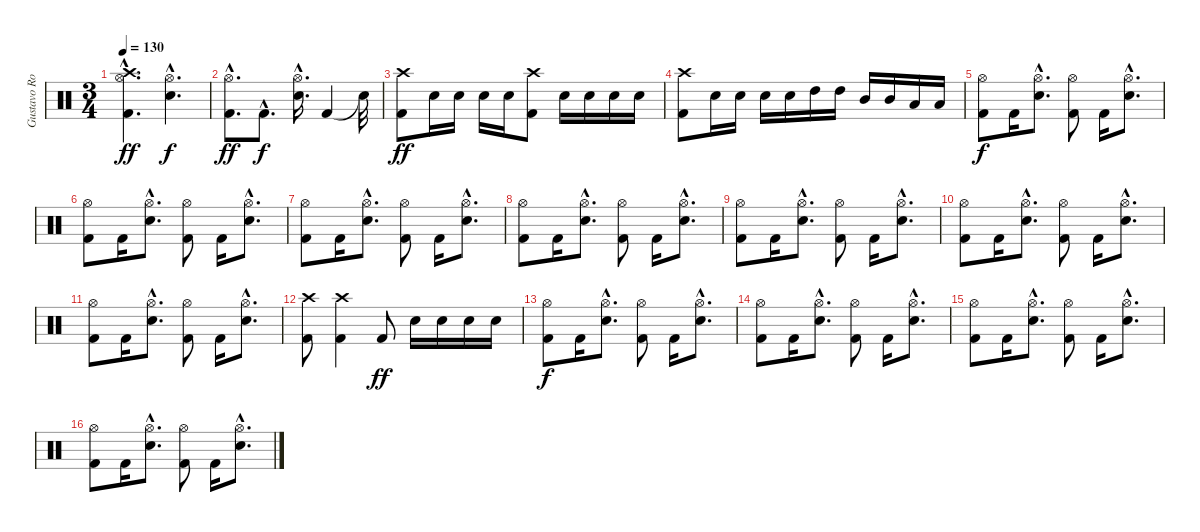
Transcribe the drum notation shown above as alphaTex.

\track ("Gustavo Rowek" "Gustavo Ro") {instrument percussion}
\staff {score}
\articulation defaults
\ts (3 4)
\tempo 130
\clef neutral
\ks c
("Hi-Hat (open)"{hac} "Crash high (hit)"{hac} "Kick (hit) 2"{hac}).4{d dy ff} ("Hi-Hat (open)"{hac} "Snare (hit) 2"{hac}).4{d dy f} |
("Hi-Hat (open)"{hac} "Kick (hit) 2"{hac}).8{d dy ff} "Kick (hit) 2"{hac}.8{d dy f} ("Hi-Hat (open)"{hac} "Snare (hit) 2"{hac}).16{d} "Kick (hit) 2".4 "Snare (hit)"{t}.32 |
("Kick (hit) 2" "Crash high (hit)").8{dy ff} "Electric Snare (hit)".16 "Electric Snare (hit)".16 "Electric Snare (hit)".16 "Electric Snare (hit)".16 ("Kick (hit) 2" "Crash high (hit)").8 "Electric Snare (hit)".16 "Electric Snare (hit)".16 "Electric Snare (hit)".16 "Electric Snare (hit)".16 |
("Kick (hit) 2" "Crash high (hit)").8 "Electric Snare (hit)".16 "Electric Snare (hit)".16 "Electric Snare (hit)".16 "Electric Snare (hit)".16 "High Tom (hit)".16 "High Tom (hit)".16 "Mid Tom (hit)".16 "Mid Tom (hit)".16 "Low Tom (hit)".16 "Low Tom (hit)".16 |
("Hi-Hat (open)" "Kick (hit) 2").8{dy f} "Kick (hit) 2".16 ("Hi-Hat (open)"{hac} "Snare (hit) 2"{hac}).8{d} ("Hi-Hat (open)" "Kick (hit) 2").8 "Kick (hit) 2".16 ("Hi-Hat (open)"{hac} "Snare (hit) 2"{hac}).8{d} |
("Hi-Hat (open)" "Kick (hit) 2").8 "Kick (hit) 2".16 ("Hi-Hat (open)"{hac} "Snare (hit) 2"{hac}).8{d} ("Hi-Hat (open)" "Kick (hit) 2").8 "Kick (hit) 2".16 ("Hi-Hat (open)"{hac} "Snare (hit) 2"{hac}).8{d} |
("Hi-Hat (open)" "Kick (hit) 2").8 "Kick (hit) 2".16 ("Hi-Hat (open)"{hac} "Snare (hit) 2"{hac}).8{d} ("Hi-Hat (open)" "Kick (hit) 2").8 "Kick (hit) 2".16 ("Hi-Hat (open)"{hac} "Snare (hit) 2"{hac}).8{d} |
("Hi-Hat (open)" "Kick (hit) 2").8 "Kick (hit) 2".16 ("Hi-Hat (open)"{hac} "Snare (hit) 2"{hac}).8{d} ("Hi-Hat (open)" "Kick (hit) 2").8 "Kick (hit) 2".16 ("Hi-Hat (open)"{hac} "Snare (hit) 2"{hac}).8{d} |
("Hi-Hat (open)" "Kick (hit) 2").8 "Kick (hit) 2".16 ("Hi-Hat (open)"{hac} "Snare (hit) 2"{hac}).8{d} ("Hi-Hat (open)" "Kick (hit) 2").8 "Kick (hit) 2".16 ("Hi-Hat (open)"{hac} "Snare (hit) 2"{hac}).8{d} |
("Hi-Hat (open)" "Kick (hit) 2").8 "Kick (hit) 2".16 ("Hi-Hat (open)"{hac} "Snare (hit) 2"{hac}).8{d} ("Hi-Hat (open)" "Kick (hit) 2").8 "Kick (hit) 2".16 ("Hi-Hat (open)"{hac} "Snare (hit) 2"{hac}).8{d} |
("Hi-Hat (open)" "Kick (hit) 2").8 "Kick (hit) 2".16 ("Hi-Hat (open)"{hac} "Snare (hit) 2"{hac}).8{d} ("Hi-Hat (open)" "Kick (hit) 2").8 "Kick (hit) 2".16 ("Hi-Hat (open)"{hac} "Snare (hit) 2"{hac}).8{d} |
("Crash high (hit)" "Kick (hit) 2").8 ("Crash high (hit)" "Kick (hit) 2").4 "Kick (hit) 2".8{dy ff} "Electric Snare (hit)".16 "Electric Snare (hit)".16 "Electric Snare (hit)".16 "Electric Snare (hit)".16 |
("Hi-Hat (open)" "Kick (hit) 2").8{dy f} "Kick (hit) 2".16 ("Hi-Hat (open)"{hac} "Snare (hit) 2"{hac}).8{d} ("Hi-Hat (open)" "Kick (hit) 2").8 "Kick (hit) 2".16 ("Hi-Hat (open)"{hac} "Snare (hit) 2"{hac}).8{d} |
("Hi-Hat (open)" "Kick (hit) 2").8 "Kick (hit) 2".16 ("Hi-Hat (open)"{hac} "Snare (hit) 2"{hac}).8{d} ("Hi-Hat (open)" "Kick (hit) 2").8 "Kick (hit) 2".16 ("Hi-Hat (open)"{hac} "Snare (hit) 2"{hac}).8{d} |
("Hi-Hat (open)" "Kick (hit) 2").8 "Kick (hit) 2".16 ("Hi-Hat (open)"{hac} "Snare (hit) 2"{hac}).8{d} ("Hi-Hat (open)" "Kick (hit) 2").8 "Kick (hit) 2".16 ("Hi-Hat (open)"{hac} "Snare (hit) 2"{hac}).8{d} |
("Hi-Hat (open)" "Kick (hit) 2").8 "Kick (hit) 2".16 ("Hi-Hat (open)"{hac} "Snare (hit) 2"{hac}).8{d} ("Hi-Hat (open)" "Kick (hit) 2").8 "Kick (hit) 2".16 ("Hi-Hat (open)"{hac} "Snare (hit) 2"{hac}).8{d}
